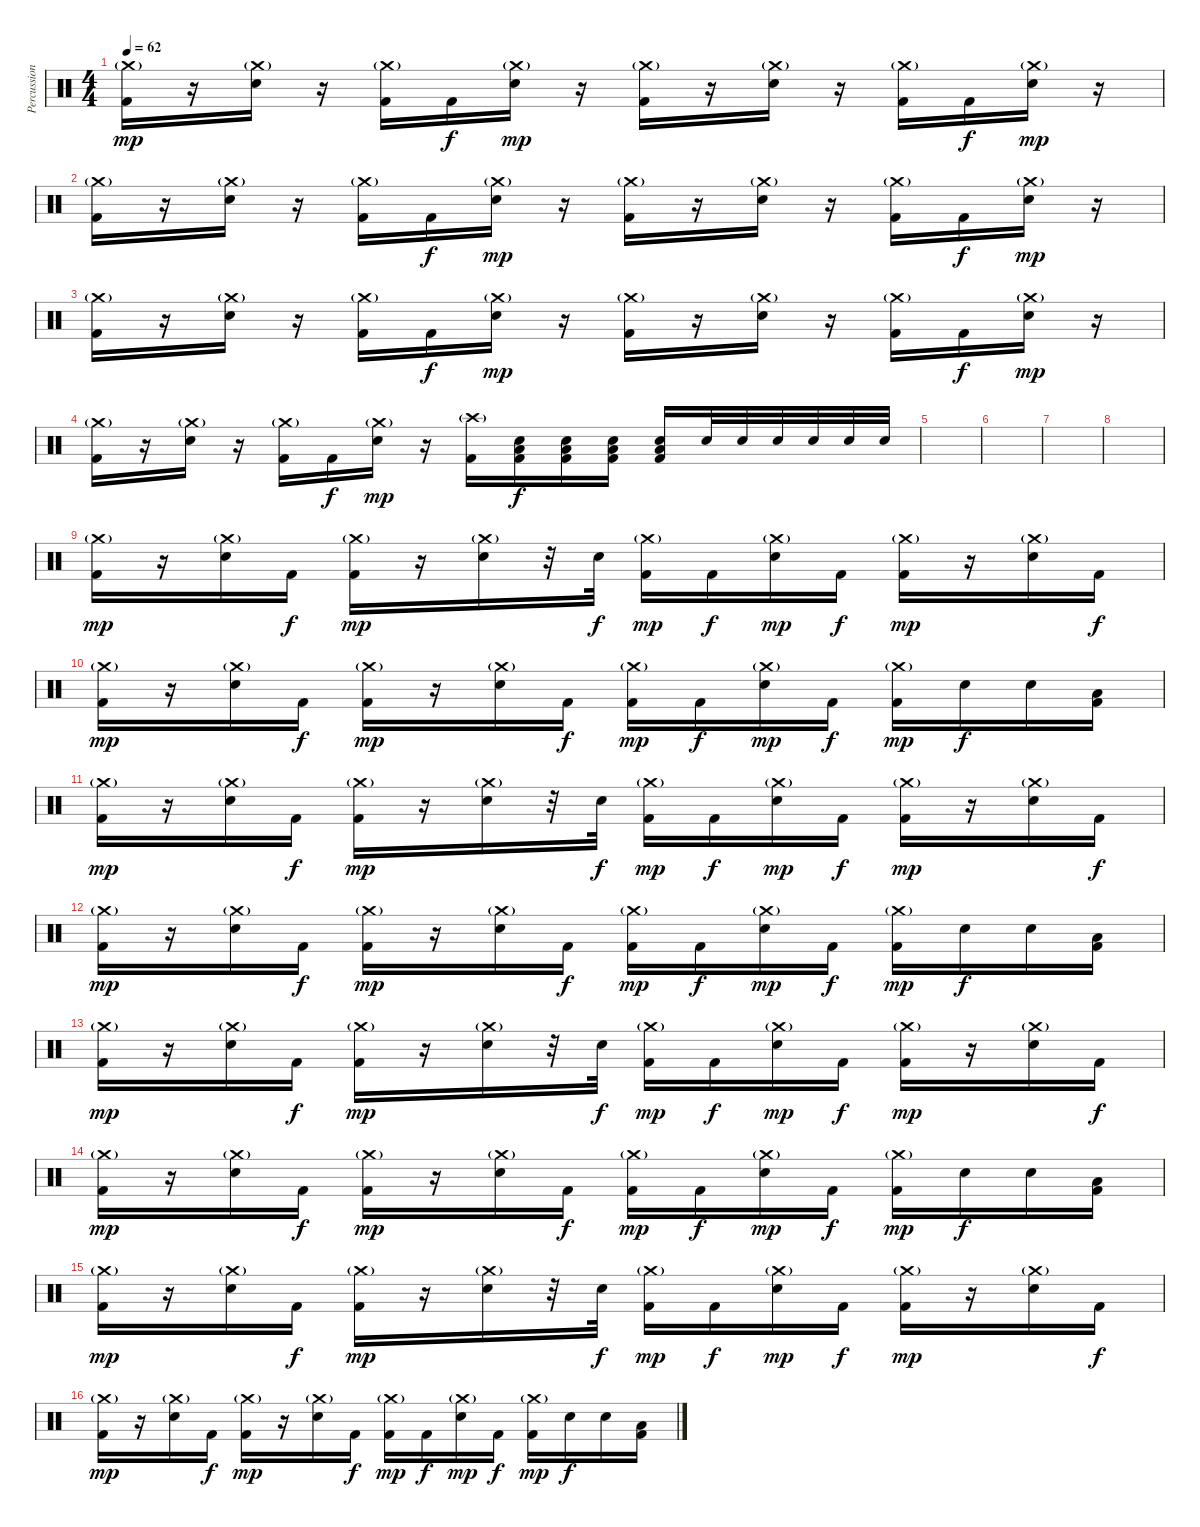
\track ("Percussion" "Percussion") {instrument percussion}
\staff {score}
\articulation defaults
\ts (4 4)
\tempo 62
\clef neutral
\ks c
("Crash medium (hit)"{g} "Kick (hit) 2").16{dy mp} r.16 ("Crash medium (hit)"{g} "Electric Snare (hit)").16 r.16 ("Crash medium (hit)"{g} "Kick (hit) 2").16 "Kick (hit) 2".16{dy f} ("Crash medium (hit)"{g} "Electric Snare (hit)").16{dy mp} r.16 ("Crash medium (hit)"{g} "Kick (hit) 2").16 r.16 ("Crash medium (hit)"{g} "Electric Snare (hit)").16 r.16 ("Crash medium (hit)"{g} "Kick (hit) 2").16 "Kick (hit) 2".16{dy f} ("Crash medium (hit)"{g} "Electric Snare (hit)").16{dy mp} r.16 |
("Crash medium (hit)"{g} "Kick (hit) 2").16 r.16 ("Crash medium (hit)"{g} "Electric Snare (hit)").16 r.16 ("Crash medium (hit)"{g} "Kick (hit) 2").16 "Kick (hit) 2".16{dy f} ("Crash medium (hit)"{g} "Electric Snare (hit)").16{dy mp} r.16 ("Crash medium (hit)"{g} "Kick (hit) 2").16 r.16 ("Crash medium (hit)"{g} "Electric Snare (hit)").16 r.16 ("Crash medium (hit)"{g} "Kick (hit) 2").16 "Kick (hit) 2".16{dy f} ("Crash medium (hit)"{g} "Electric Snare (hit)").16{dy mp} r.16 |
("Crash medium (hit)"{g} "Kick (hit) 2").16 r.16 ("Crash medium (hit)"{g} "Electric Snare (hit)").16 r.16 ("Crash medium (hit)"{g} "Kick (hit) 2").16 "Kick (hit) 2".16{dy f} ("Crash medium (hit)"{g} "Electric Snare (hit)").16{dy mp} r.16 ("Crash medium (hit)"{g} "Kick (hit) 2").16 r.16 ("Crash medium (hit)"{g} "Electric Snare (hit)").16 r.16 ("Crash medium (hit)"{g} "Kick (hit) 2").16 "Kick (hit) 2".16{dy f} ("Crash medium (hit)"{g} "Electric Snare (hit)").16{dy mp} r.16 |
("Crash medium (hit)"{g} "Kick (hit) 2").16 r.16 ("Crash medium (hit)"{g} "Electric Snare (hit)").16 r.16 ("Crash medium (hit)"{g} "Kick (hit) 2").16 "Kick (hit) 2".16{dy f} ("Crash medium (hit)"{g} "Electric Snare (hit)").16{dy mp} r.16 ("Crash high (hit)"{g} "Kick (hit) 2").16 ("Electric Snare (hit)" "Low Floor Tom (hit)" "Kick (hit) 2").16{dy f} ("Electric Snare (hit)" "Low Floor Tom (hit)" "Kick (hit) 2").16 ("Electric Snare (hit)" "Low Floor Tom (hit)" "Kick (hit) 2").16 ("Electric Snare (hit)" "Low Floor Tom (hit)" "Kick (hit) 2").16 "Electric Snare (hit)".32 "Electric Snare (hit)".32 "Electric Snare (hit)".32 "Electric Snare (hit)".32 "Electric Snare (hit)".32 "Electric Snare (hit)".32 |
|
|
|
|
("Crash medium (hit)"{g} "Kick (hit) 2").16{dy mp} r.16 ("Crash medium (hit)"{g} "Electric Snare (hit)").16 "Kick (hit) 2".16{dy f} ("Crash medium (hit)"{g} "Kick (hit) 2").16{dy mp} r.16 ("Crash medium (hit)"{g} "Electric Snare (hit)").16 r.32 "Electric Snare (hit)".32{dy f} ("Crash medium (hit)"{g} "Kick (hit) 2").16{dy mp} "Kick (hit) 2".16{dy f} ("Crash medium (hit)"{g} "Electric Snare (hit)").16{dy mp} "Kick (hit) 2".16{dy f} ("Crash medium (hit)"{g} "Kick (hit) 2").16{dy mp} r.16 ("Crash medium (hit)"{g} "Electric Snare (hit)").16 "Kick (hit) 2".16{dy f} |
("Crash medium (hit)"{g} "Kick (hit) 2").16{dy mp} r.16 ("Crash medium (hit)"{g} "Electric Snare (hit)").16 "Kick (hit) 2".16{dy f} ("Crash medium (hit)"{g} "Kick (hit) 2").16{dy mp} r.16 ("Crash medium (hit)"{g} "Electric Snare (hit)").16 "Kick (hit) 2".16{dy f} ("Crash medium (hit)"{g} "Kick (hit) 2").16{dy mp} "Kick (hit) 2".16{dy f} ("Crash medium (hit)"{g} "Electric Snare (hit)").16{dy mp} "Kick (hit) 2".16{dy f} ("Crash medium (hit)"{g} "Kick (hit) 2").16{dy mp} "Electric Snare (hit)".16{dy f} "Electric Snare (hit)".16 ("Low Tom (hit)" "Kick (hit) 2").16 |
("Crash medium (hit)"{g} "Kick (hit) 2").16{dy mp} r.16 ("Crash medium (hit)"{g} "Electric Snare (hit)").16 "Kick (hit) 2".16{dy f} ("Crash medium (hit)"{g} "Kick (hit) 2").16{dy mp} r.16 ("Crash medium (hit)"{g} "Electric Snare (hit)").16 r.32 "Electric Snare (hit)".32{dy f} ("Crash medium (hit)"{g} "Kick (hit) 2").16{dy mp} "Kick (hit) 2".16{dy f} ("Crash medium (hit)"{g} "Electric Snare (hit)").16{dy mp} "Kick (hit) 2".16{dy f} ("Crash medium (hit)"{g} "Kick (hit) 2").16{dy mp} r.16 ("Crash medium (hit)"{g} "Electric Snare (hit)").16 "Kick (hit) 2".16{dy f} |
("Crash medium (hit)"{g} "Kick (hit) 2").16{dy mp} r.16 ("Crash medium (hit)"{g} "Electric Snare (hit)").16 "Kick (hit) 2".16{dy f} ("Crash medium (hit)"{g} "Kick (hit) 2").16{dy mp} r.16 ("Crash medium (hit)"{g} "Electric Snare (hit)").16 "Kick (hit) 2".16{dy f} ("Crash medium (hit)"{g} "Kick (hit) 2").16{dy mp} "Kick (hit) 2".16{dy f} ("Crash medium (hit)"{g} "Electric Snare (hit)").16{dy mp} "Kick (hit) 2".16{dy f} ("Crash medium (hit)"{g} "Kick (hit) 2").16{dy mp} "Electric Snare (hit)".16{dy f} "Electric Snare (hit)".16 ("Low Tom (hit)" "Kick (hit) 2").16 |
("Crash medium (hit)"{g} "Kick (hit) 2").16{dy mp} r.16 ("Crash medium (hit)"{g} "Electric Snare (hit)").16 "Kick (hit) 2".16{dy f} ("Crash medium (hit)"{g} "Kick (hit) 2").16{dy mp} r.16 ("Crash medium (hit)"{g} "Electric Snare (hit)").16 r.32 "Electric Snare (hit)".32{dy f} ("Crash medium (hit)"{g} "Kick (hit) 2").16{dy mp} "Kick (hit) 2".16{dy f} ("Crash medium (hit)"{g} "Electric Snare (hit)").16{dy mp} "Kick (hit) 2".16{dy f} ("Crash medium (hit)"{g} "Kick (hit) 2").16{dy mp} r.16 ("Crash medium (hit)"{g} "Electric Snare (hit)").16 "Kick (hit) 2".16{dy f} |
("Crash medium (hit)"{g} "Kick (hit) 2").16{dy mp} r.16 ("Crash medium (hit)"{g} "Electric Snare (hit)").16 "Kick (hit) 2".16{dy f} ("Crash medium (hit)"{g} "Kick (hit) 2").16{dy mp} r.16 ("Crash medium (hit)"{g} "Electric Snare (hit)").16 "Kick (hit) 2".16{dy f} ("Crash medium (hit)"{g} "Kick (hit) 2").16{dy mp} "Kick (hit) 2".16{dy f} ("Crash medium (hit)"{g} "Electric Snare (hit)").16{dy mp} "Kick (hit) 2".16{dy f} ("Crash medium (hit)"{g} "Kick (hit) 2").16{dy mp} "Electric Snare (hit)".16{dy f} "Electric Snare (hit)".16 ("Low Tom (hit)" "Kick (hit) 2").16 |
("Crash medium (hit)"{g} "Kick (hit) 2").16{dy mp} r.16 ("Crash medium (hit)"{g} "Electric Snare (hit)").16 "Kick (hit) 2".16{dy f} ("Crash medium (hit)"{g} "Kick (hit) 2").16{dy mp} r.16 ("Crash medium (hit)"{g} "Electric Snare (hit)").16 r.32 "Electric Snare (hit)".32{dy f} ("Crash medium (hit)"{g} "Kick (hit) 2").16{dy mp} "Kick (hit) 2".16{dy f} ("Crash medium (hit)"{g} "Electric Snare (hit)").16{dy mp} "Kick (hit) 2".16{dy f} ("Crash medium (hit)"{g} "Kick (hit) 2").16{dy mp} r.16 ("Crash medium (hit)"{g} "Electric Snare (hit)").16 "Kick (hit) 2".16{dy f} |
("Crash medium (hit)"{g} "Kick (hit) 2").16{dy mp} r.16 ("Crash medium (hit)"{g} "Electric Snare (hit)").16 "Kick (hit) 2".16{dy f} ("Crash medium (hit)"{g} "Kick (hit) 2").16{dy mp} r.16 ("Crash medium (hit)"{g} "Electric Snare (hit)").16 "Kick (hit) 2".16{dy f} ("Crash medium (hit)"{g} "Kick (hit) 2").16{dy mp} "Kick (hit) 2".16{dy f} ("Crash medium (hit)"{g} "Electric Snare (hit)").16{dy mp} "Kick (hit) 2".16{dy f} ("Crash medium (hit)"{g} "Kick (hit) 2").16{dy mp} "Electric Snare (hit)".16{dy f} "Electric Snare (hit)".16 ("Low Tom (hit)" "Kick (hit) 2").16
